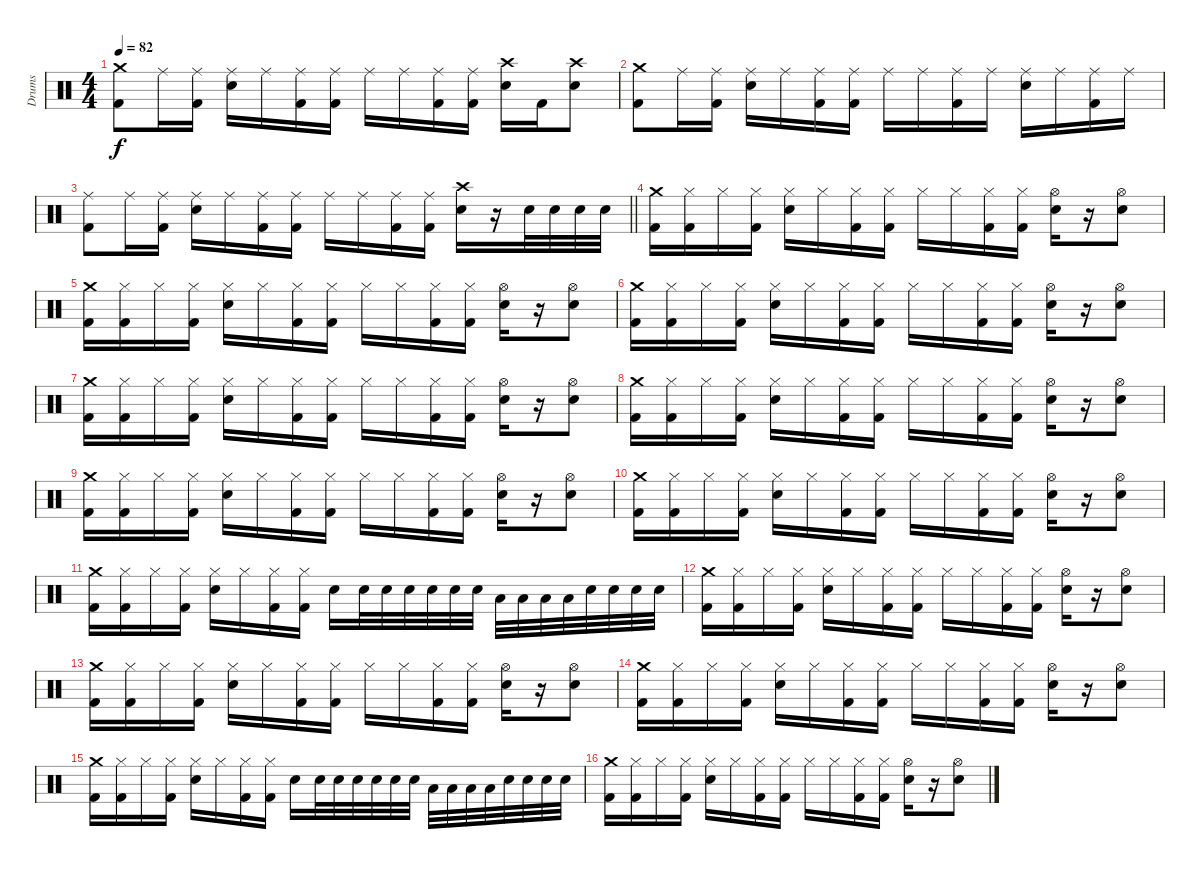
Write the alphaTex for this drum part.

\track ("Drums" "Drums") {instrument percussion}
\staff {score}
\articulation defaults
\ts (4 4)
\tempo 82
\clef neutral
\ks c
("Crash medium (hit)" "Kick (hit) 2").8{dy f} "Ride (middle)".16 ("Ride (middle)" "Kick (hit) 2").16 ("Ride (middle)" "Snare (hit) 2").16 "Ride (middle)".16 ("Ride (middle)" "Kick (hit) 2").16 ("Ride (middle)" "Kick (hit) 2").16 "Ride (middle)".16 "Ride (middle)".16 ("Ride (middle)" "Kick (hit) 2").16 ("Ride (middle)" "Kick (hit) 2").16 ("Crash high (hit)" "Snare (hit) 2").16 "Kick (hit) 2".16 ("Crash high (hit)" "Snare (hit) 2").8 |
("Crash medium (hit)" "Kick (hit) 2").8 "Ride (middle)".16 ("Ride (middle)" "Kick (hit) 2").16 ("Ride (middle)" "Snare (hit) 2").16 "Ride (middle)".16 ("Ride (middle)" "Kick (hit) 2").16 ("Ride (middle)" "Kick (hit) 2").16 "Ride (middle)".16 "Ride (middle)".16 ("Ride (middle)" "Kick (hit) 2").16 "Ride (middle)".16 ("Ride (middle)" "Snare (hit) 2").16 "Ride (middle)".16 ("Ride (middle)" "Kick (hit) 2").16 "Ride (middle)".16 |
\barLineRight lightlight
("Ride (middle)" "Kick (hit) 2").8 "Ride (middle)".16 ("Ride (middle)" "Kick (hit) 2").16 ("Ride (middle)" "Snare (hit) 2").16 "Ride (middle)".16 ("Ride (middle)" "Kick (hit) 2").16 ("Ride (middle)" "Kick (hit) 2").16 "Ride (middle)".16 "Ride (middle)".16 ("Ride (middle)" "Kick (hit) 2").16 ("Ride (middle)" "Kick (hit) 2").16 ("Crash high (hit)" "Snare (hit) 2").16 r.16 "Snare (hit) 2".32 "Snare (hit) 2".32 "Snare (hit) 2".32 "Snare (hit) 2".32 |
("Crash medium (hit)" "Kick (hit) 2").16 ("Hi-Hat (closed)" "Kick (hit) 2").16 "Hi-Hat (closed)".16 ("Hi-Hat (closed)" "Kick (hit) 2").16 ("Hi-Hat (closed)" "Snare (hit) 2").16 "Hi-Hat (closed)".16 ("Hi-Hat (closed)" "Kick (hit) 2").16 ("Hi-Hat (closed)" "Kick (hit) 2").16 "Hi-Hat (closed)".16 "Hi-Hat (closed)".16 ("Hi-Hat (closed)" "Kick (hit) 2").16 ("Hi-Hat (closed)" "Kick (hit) 2").16 ("Hi-Hat (open)" "Snare (hit) 2").16 r.16 ("Hi-Hat (open)" "Snare (hit) 2").8 |
("Crash medium (hit)" "Kick (hit) 2").16 ("Hi-Hat (closed)" "Kick (hit) 2").16 "Hi-Hat (closed)".16 ("Hi-Hat (closed)" "Kick (hit) 2").16 ("Hi-Hat (closed)" "Snare (hit) 2").16 "Hi-Hat (closed)".16 ("Hi-Hat (closed)" "Kick (hit) 2").16 ("Hi-Hat (closed)" "Kick (hit) 2").16 "Hi-Hat (closed)".16 "Hi-Hat (closed)".16 ("Hi-Hat (closed)" "Kick (hit) 2").16 ("Hi-Hat (closed)" "Kick (hit) 2").16 ("Hi-Hat (open)" "Snare (hit) 2").16 r.16 ("Hi-Hat (open)" "Snare (hit) 2").8 |
("Crash medium (hit)" "Kick (hit) 2").16 ("Hi-Hat (closed)" "Kick (hit) 2").16 "Hi-Hat (closed)".16 ("Hi-Hat (closed)" "Kick (hit) 2").16 ("Hi-Hat (closed)" "Snare (hit) 2").16 "Hi-Hat (closed)".16 ("Hi-Hat (closed)" "Kick (hit) 2").16 ("Hi-Hat (closed)" "Kick (hit) 2").16 "Hi-Hat (closed)".16 "Hi-Hat (closed)".16 ("Hi-Hat (closed)" "Kick (hit) 2").16 ("Hi-Hat (closed)" "Kick (hit) 2").16 ("Hi-Hat (open)" "Snare (hit) 2").16 r.16 ("Hi-Hat (open)" "Snare (hit) 2").8 |
("Crash medium (hit)" "Kick (hit) 2").16 ("Hi-Hat (closed)" "Kick (hit) 2").16 "Hi-Hat (closed)".16 ("Hi-Hat (closed)" "Kick (hit) 2").16 ("Hi-Hat (closed)" "Snare (hit) 2").16 "Hi-Hat (closed)".16 ("Hi-Hat (closed)" "Kick (hit) 2").16 ("Hi-Hat (closed)" "Kick (hit) 2").16 "Hi-Hat (closed)".16 "Hi-Hat (closed)".16 ("Hi-Hat (closed)" "Kick (hit) 2").16 ("Hi-Hat (closed)" "Kick (hit) 2").16 ("Hi-Hat (open)" "Snare (hit) 2").16 r.16 ("Hi-Hat (open)" "Snare (hit) 2").8 |
("Crash medium (hit)" "Kick (hit) 2").16 ("Hi-Hat (closed)" "Kick (hit) 2").16 "Hi-Hat (closed)".16 ("Hi-Hat (closed)" "Kick (hit) 2").16 ("Hi-Hat (closed)" "Snare (hit) 2").16 "Hi-Hat (closed)".16 ("Hi-Hat (closed)" "Kick (hit) 2").16 ("Hi-Hat (closed)" "Kick (hit) 2").16 "Hi-Hat (closed)".16 "Hi-Hat (closed)".16 ("Hi-Hat (closed)" "Kick (hit) 2").16 ("Hi-Hat (closed)" "Kick (hit) 2").16 ("Hi-Hat (open)" "Snare (hit) 2").16 r.16 ("Hi-Hat (open)" "Snare (hit) 2").8 |
("Crash medium (hit)" "Kick (hit) 2").16 ("Hi-Hat (closed)" "Kick (hit) 2").16 "Hi-Hat (closed)".16 ("Hi-Hat (closed)" "Kick (hit) 2").16 ("Hi-Hat (closed)" "Snare (hit) 2").16 "Hi-Hat (closed)".16 ("Hi-Hat (closed)" "Kick (hit) 2").16 ("Hi-Hat (closed)" "Kick (hit) 2").16 "Hi-Hat (closed)".16 "Hi-Hat (closed)".16 ("Hi-Hat (closed)" "Kick (hit) 2").16 ("Hi-Hat (closed)" "Kick (hit) 2").16 ("Hi-Hat (open)" "Snare (hit) 2").16 r.16 ("Hi-Hat (open)" "Snare (hit) 2").8 |
("Crash medium (hit)" "Kick (hit) 2").16 ("Hi-Hat (closed)" "Kick (hit) 2").16 "Hi-Hat (closed)".16 ("Hi-Hat (closed)" "Kick (hit) 2").16 ("Hi-Hat (closed)" "Snare (hit) 2").16 "Hi-Hat (closed)".16 ("Hi-Hat (closed)" "Kick (hit) 2").16 ("Hi-Hat (closed)" "Kick (hit) 2").16 "Hi-Hat (closed)".16 "Hi-Hat (closed)".16 ("Hi-Hat (closed)" "Kick (hit) 2").16 ("Hi-Hat (closed)" "Kick (hit) 2").16 ("Hi-Hat (open)" "Snare (hit) 2").16 r.16 ("Hi-Hat (open)" "Snare (hit) 2").8 |
("Crash medium (hit)" "Kick (hit) 2").16 ("Hi-Hat (closed)" "Kick (hit) 2").16 "Hi-Hat (closed)".16 ("Hi-Hat (closed)" "Kick (hit) 2").16 ("Hi-Hat (closed)" "Snare (hit) 2").16 "Hi-Hat (closed)".16 ("Hi-Hat (closed)" "Kick (hit) 2").16 ("Hi-Hat (closed)" "Kick (hit) 2").16 "Snare (hit) 2".16 "Snare (hit) 2".32 "Snare (hit) 2".32 "Snare (hit) 2".32 "Snare (hit) 2".32 "Snare (hit) 2".32 "Snare (hit) 2".32 "Low Tom (hit)".32 "Low Tom (hit)".32 "Low Tom (hit)".32 "Low Tom (hit)".32 "Snare (hit) 2".32 "Snare (hit) 2".32 "Snare (hit) 2".32 "Snare (hit) 2".32 |
("Crash medium (hit)" "Kick (hit) 2").16 ("Hi-Hat (closed)" "Kick (hit) 2").16 "Hi-Hat (closed)".16 ("Hi-Hat (closed)" "Kick (hit) 2").16 ("Hi-Hat (closed)" "Snare (hit) 2").16 "Hi-Hat (closed)".16 ("Hi-Hat (closed)" "Kick (hit) 2").16 ("Hi-Hat (closed)" "Kick (hit) 2").16 "Hi-Hat (closed)".16 "Hi-Hat (closed)".16 ("Hi-Hat (closed)" "Kick (hit) 2").16 ("Hi-Hat (closed)" "Kick (hit) 2").16 ("Hi-Hat (open)" "Snare (hit) 2").16 r.16 ("Hi-Hat (open)" "Snare (hit) 2").8 |
("Crash medium (hit)" "Kick (hit) 2").16 ("Hi-Hat (closed)" "Kick (hit) 2").16 "Hi-Hat (closed)".16 ("Hi-Hat (closed)" "Kick (hit) 2").16 ("Hi-Hat (closed)" "Snare (hit) 2").16 "Hi-Hat (closed)".16 ("Hi-Hat (closed)" "Kick (hit) 2").16 ("Hi-Hat (closed)" "Kick (hit) 2").16 "Hi-Hat (closed)".16 "Hi-Hat (closed)".16 ("Hi-Hat (closed)" "Kick (hit) 2").16 ("Hi-Hat (closed)" "Kick (hit) 2").16 ("Hi-Hat (open)" "Snare (hit) 2").16 r.16 ("Hi-Hat (open)" "Snare (hit) 2").8 |
("Crash medium (hit)" "Kick (hit) 2").16 ("Hi-Hat (closed)" "Kick (hit) 2").16 "Hi-Hat (closed)".16 ("Hi-Hat (closed)" "Kick (hit) 2").16 ("Hi-Hat (closed)" "Snare (hit) 2").16 "Hi-Hat (closed)".16 ("Hi-Hat (closed)" "Kick (hit) 2").16 ("Hi-Hat (closed)" "Kick (hit) 2").16 "Hi-Hat (closed)".16 "Hi-Hat (closed)".16 ("Hi-Hat (closed)" "Kick (hit) 2").16 ("Hi-Hat (closed)" "Kick (hit) 2").16 ("Hi-Hat (open)" "Snare (hit) 2").16 r.16 ("Hi-Hat (open)" "Snare (hit) 2").8 |
("Crash medium (hit)" "Kick (hit) 2").16 ("Hi-Hat (closed)" "Kick (hit) 2").16 "Hi-Hat (closed)".16 ("Hi-Hat (closed)" "Kick (hit) 2").16 ("Hi-Hat (closed)" "Snare (hit) 2").16 "Hi-Hat (closed)".16 ("Hi-Hat (closed)" "Kick (hit) 2").16 ("Hi-Hat (closed)" "Kick (hit) 2").16 "Snare (hit) 2".16 "Snare (hit) 2".32 "Snare (hit) 2".32 "Snare (hit) 2".32 "Snare (hit) 2".32 "Snare (hit) 2".32 "Snare (hit) 2".32 "Low Tom (hit)".32 "Low Tom (hit)".32 "Low Tom (hit)".32 "Low Tom (hit)".32 "Snare (hit) 2".32 "Snare (hit) 2".32 "Snare (hit) 2".32 "Snare (hit) 2".32 |
("Crash medium (hit)" "Kick (hit) 2").16 ("Hi-Hat (closed)" "Kick (hit) 2").16 "Hi-Hat (closed)".16 ("Hi-Hat (closed)" "Kick (hit) 2").16 ("Hi-Hat (closed)" "Snare (hit) 2").16 "Hi-Hat (closed)".16 ("Hi-Hat (closed)" "Kick (hit) 2").16 ("Hi-Hat (closed)" "Kick (hit) 2").16 "Hi-Hat (closed)".16 "Hi-Hat (closed)".16 ("Hi-Hat (closed)" "Kick (hit) 2").16 ("Hi-Hat (closed)" "Kick (hit) 2").16 ("Hi-Hat (open)" "Snare (hit) 2").16 r.16 ("Hi-Hat (open)" "Snare (hit) 2").8
